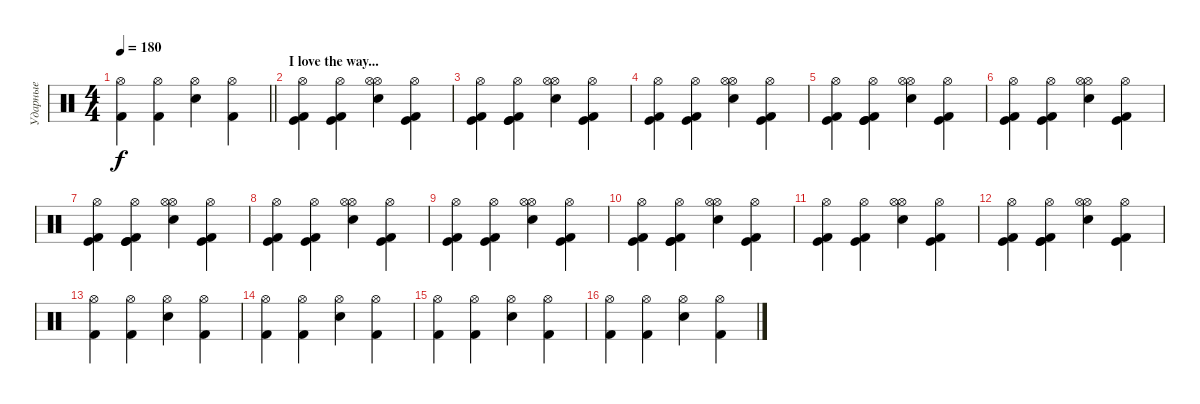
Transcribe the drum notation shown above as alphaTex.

\track ("Ударные" "Ударные") {instrument percussion}
\staff {score}
\articulation defaults
\ts (4 4)
\tempo 180
\clef neutral
\barLineRight lightlight
\ks c
("Hi-Hat (open)" "Kick (hit) 2").4{dy f} ("Hi-Hat (open)" "Kick (hit) 2").4 ("Electric Snare (hit)" "Hi-Hat (open)").4 ("Hi-Hat (open)" "Kick (hit) 2").4 |
\section ("" "I love the way...")
("Hi-Hat (open)" "Kick (hit) 2" "Kick (hit)").4 ("Hi-Hat (open)" "Kick (hit) 2" "Kick (hit)").4 ("Electric Snare (hit)" "Hi-Hat (open)" "Hi-Hat (open)").4 ("Hi-Hat (open)" "Kick (hit) 2" "Kick (hit)").4 |
("Hi-Hat (open)" "Kick (hit) 2" "Kick (hit)").4 ("Hi-Hat (open)" "Kick (hit) 2" "Kick (hit)" "Kick (hit)").4 ("Electric Snare (hit)" "Hi-Hat (open)" "Hi-Hat (open)").4 ("Hi-Hat (open)" "Kick (hit) 2" "Kick (hit)").4 |
("Hi-Hat (open)" "Kick (hit) 2" "Kick (hit)").4 ("Hi-Hat (open)" "Kick (hit) 2" "Kick (hit)").4 ("Electric Snare (hit)" "Hi-Hat (open)" "Hi-Hat (open)").4 ("Hi-Hat (open)" "Kick (hit) 2" "Kick (hit)").4 |
("Hi-Hat (open)" "Kick (hit) 2" "Kick (hit)").4 ("Hi-Hat (open)" "Kick (hit) 2" "Kick (hit)" "Kick (hit)").4 ("Electric Snare (hit)" "Hi-Hat (open)" "Hi-Hat (open)").4 ("Hi-Hat (open)" "Kick (hit) 2" "Kick (hit)").4 |
("Hi-Hat (open)" "Kick (hit) 2" "Kick (hit)").4 ("Hi-Hat (open)" "Kick (hit) 2" "Kick (hit)").4 ("Electric Snare (hit)" "Hi-Hat (open)" "Hi-Hat (open)").4 ("Hi-Hat (open)" "Kick (hit) 2" "Kick (hit)").4 |
("Hi-Hat (open)" "Kick (hit) 2" "Kick (hit)").4 ("Hi-Hat (open)" "Kick (hit) 2" "Kick (hit)" "Kick (hit)").4 ("Electric Snare (hit)" "Hi-Hat (open)" "Hi-Hat (open)").4 ("Hi-Hat (open)" "Kick (hit) 2" "Kick (hit)").4 |
("Hi-Hat (open)" "Kick (hit) 2" "Kick (hit)").4 ("Hi-Hat (open)" "Kick (hit) 2" "Kick (hit)").4 ("Electric Snare (hit)" "Hi-Hat (open)" "Hi-Hat (open)").4 ("Hi-Hat (open)" "Kick (hit) 2" "Kick (hit)").4 |
("Hi-Hat (open)" "Kick (hit) 2" "Kick (hit)").4 ("Hi-Hat (open)" "Kick (hit) 2" "Kick (hit)").4 ("Electric Snare (hit)" "Hi-Hat (open)" "Hi-Hat (open)").4 ("Hi-Hat (open)" "Kick (hit) 2" "Kick (hit)").4 |
("Hi-Hat (open)" "Kick (hit) 2" "Kick (hit)").4 ("Hi-Hat (open)" "Kick (hit) 2" "Kick (hit)" "Kick (hit)").4 ("Electric Snare (hit)" "Hi-Hat (open)" "Hi-Hat (open)").4 ("Hi-Hat (open)" "Kick (hit) 2" "Kick (hit)").4 |
("Hi-Hat (open)" "Kick (hit) 2" "Kick (hit)").4 ("Hi-Hat (open)" "Kick (hit) 2" "Kick (hit)").4 ("Electric Snare (hit)" "Hi-Hat (open)" "Hi-Hat (open)").4 ("Hi-Hat (open)" "Kick (hit) 2" "Kick (hit)").4 |
("Hi-Hat (open)" "Kick (hit) 2" "Kick (hit)").4 ("Hi-Hat (open)" "Kick (hit) 2" "Kick (hit)" "Kick (hit)").4 ("Electric Snare (hit)" "Hi-Hat (open)" "Hi-Hat (open)").4 ("Hi-Hat (open)" "Kick (hit) 2" "Kick (hit)").4 |
("Hi-Hat (open)" "Kick (hit) 2").4 ("Hi-Hat (open)" "Kick (hit) 2").4 ("Electric Snare (hit)" "Hi-Hat (open)").4 ("Hi-Hat (open)" "Kick (hit) 2").4 |
("Hi-Hat (open)" "Kick (hit) 2").4 ("Hi-Hat (open)" "Kick (hit) 2").4 ("Electric Snare (hit)" "Hi-Hat (open)").4 ("Hi-Hat (open)" "Kick (hit) 2").4 |
("Hi-Hat (open)" "Kick (hit) 2").4 ("Hi-Hat (open)" "Kick (hit) 2").4 ("Electric Snare (hit)" "Hi-Hat (open)").4 ("Hi-Hat (open)" "Kick (hit) 2").4 |
("Hi-Hat (open)" "Kick (hit) 2").4 ("Hi-Hat (open)" "Kick (hit) 2").4 ("Electric Snare (hit)" "Hi-Hat (open)").4 ("Hi-Hat (open)" "Kick (hit) 2").4
